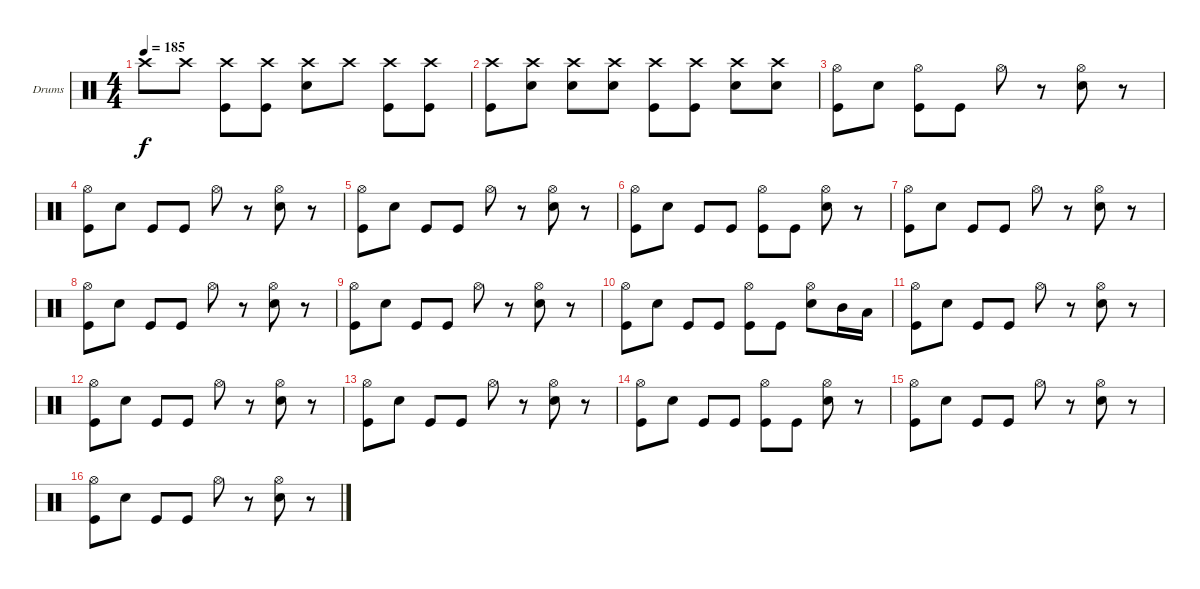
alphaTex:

\defaultSystemsLayout 4
\bracketExtendMode nobrackets
\firstSystemTrackNameOrientation horizontal
\otherSystemsTrackNameOrientation horizontal
\track ("Drumkit" "Drums") {instrument percussion}
\staff {score}
\articulation defaults
\ts (4 4)
\tempo 185
\clef neutral
\ks c "Crash high (hit)".8{dy f} "Crash high (hit)".8
("Crash high (hit)" "Kick (hit)").8 ("Crash high (hit)" "Kick (hit)").8 ("Crash high (hit)" "Snare (hit) 2").8 "Crash high (hit)".8 ("Crash high (hit)" "Kick (hit)").8 ("Crash high (hit)" "Kick (hit)").8 |
("Crash high (hit)" "Kick (hit)").8 ("Crash high (hit)" "Snare (hit) 2").8 ("Crash high (hit)" "Snare (hit) 2").8 ("Crash high (hit)" "Snare (hit) 2").8 ("Crash high (hit)" "Kick (hit)").8 ("Crash high (hit)" "Kick (hit)").8 ("Crash high (hit)" "Snare (hit) 2").8 ("Crash high (hit)" "Snare (hit) 2").8 |
("Hi-Hat (open)" "Kick (hit)").8 "Snare (hit) 2".8 ("Hi-Hat (open)" "Kick (hit)").8 "Kick (hit)".8 "Hi-Hat (open)".8 r.8 ("Hi-Hat (open)" "Snare (hit) 2").8 r.8 |
("Hi-Hat (open)" "Kick (hit)").8 "Snare (hit) 2".8 "Kick (hit)".8 "Kick (hit)".8 "Hi-Hat (open)".8 r.8 ("Hi-Hat (open)" "Snare (hit) 2").8 r.8 |
("Hi-Hat (open)" "Kick (hit)").8 "Snare (hit) 2".8 "Kick (hit)".8 "Kick (hit)".8 "Hi-Hat (open)".8 r.8 ("Hi-Hat (open)" "Snare (hit) 2").8 r.8 |
("Hi-Hat (open)" "Kick (hit)").8 "Snare (hit) 2".8 "Kick (hit)".8 "Kick (hit)".8 ("Hi-Hat (open)" "Kick (hit)").8 "Kick (hit)".8 ("Hi-Hat (open)" "Snare (hit) 2").8 r.8 |
("Hi-Hat (open)" "Kick (hit)").8 "Snare (hit) 2".8 "Kick (hit)".8 "Kick (hit)".8 "Hi-Hat (open)".8 r.8 ("Hi-Hat (open)" "Snare (hit) 2").8 r.8 |
("Hi-Hat (open)" "Kick (hit)").8 "Snare (hit) 2".8 "Kick (hit)".8 "Kick (hit)".8 "Hi-Hat (open)".8 r.8 ("Hi-Hat (open)" "Snare (hit) 2").8 r.8 |
("Hi-Hat (open)" "Kick (hit)").8 "Snare (hit) 2".8 "Kick (hit)".8 "Kick (hit)".8 "Hi-Hat (open)".8 r.8 ("Hi-Hat (open)" "Snare (hit) 2").8 r.8 |
("Hi-Hat (open)" "Kick (hit)").8 "Snare (hit) 2".8 "Kick (hit)".8 "Kick (hit)".8 ("Hi-Hat (open)" "Kick (hit)").8 "Kick (hit)".8 ("Hi-Hat (open)" "Snare (hit) 2").8 "Mid Tom (hit)".16 "Low Tom (hit)".16 |
("Hi-Hat (open)" "Kick (hit)").8 "Snare (hit) 2".8 "Kick (hit)".8 "Kick (hit)".8 "Hi-Hat (open)".8 r.8 ("Hi-Hat (open)" "Snare (hit) 2").8 r.8 |
("Hi-Hat (open)" "Kick (hit)").8 "Snare (hit) 2".8 "Kick (hit)".8 "Kick (hit)".8 "Hi-Hat (open)".8 r.8 ("Hi-Hat (open)" "Snare (hit) 2").8 r.8 |
("Hi-Hat (open)" "Kick (hit)").8 "Snare (hit) 2".8 "Kick (hit)".8 "Kick (hit)".8 "Hi-Hat (open)".8 r.8 ("Hi-Hat (open)" "Snare (hit) 2").8 r.8 |
("Hi-Hat (open)" "Kick (hit)").8 "Snare (hit) 2".8 "Kick (hit)".8 "Kick (hit)".8 ("Hi-Hat (open)" "Kick (hit)").8 "Kick (hit)".8 ("Hi-Hat (open)" "Snare (hit) 2").8 r.8 |
("Hi-Hat (open)" "Kick (hit)").8 "Snare (hit) 2".8 "Kick (hit)".8 "Kick (hit)".8 "Hi-Hat (open)".8 r.8 ("Hi-Hat (open)" "Snare (hit) 2").8 r.8 |
("Hi-Hat (open)" "Kick (hit)").8 "Snare (hit) 2".8 "Kick (hit)".8 "Kick (hit)".8 "Hi-Hat (open)".8 r.8 ("Hi-Hat (open)" "Snare (hit) 2").8 r.8
